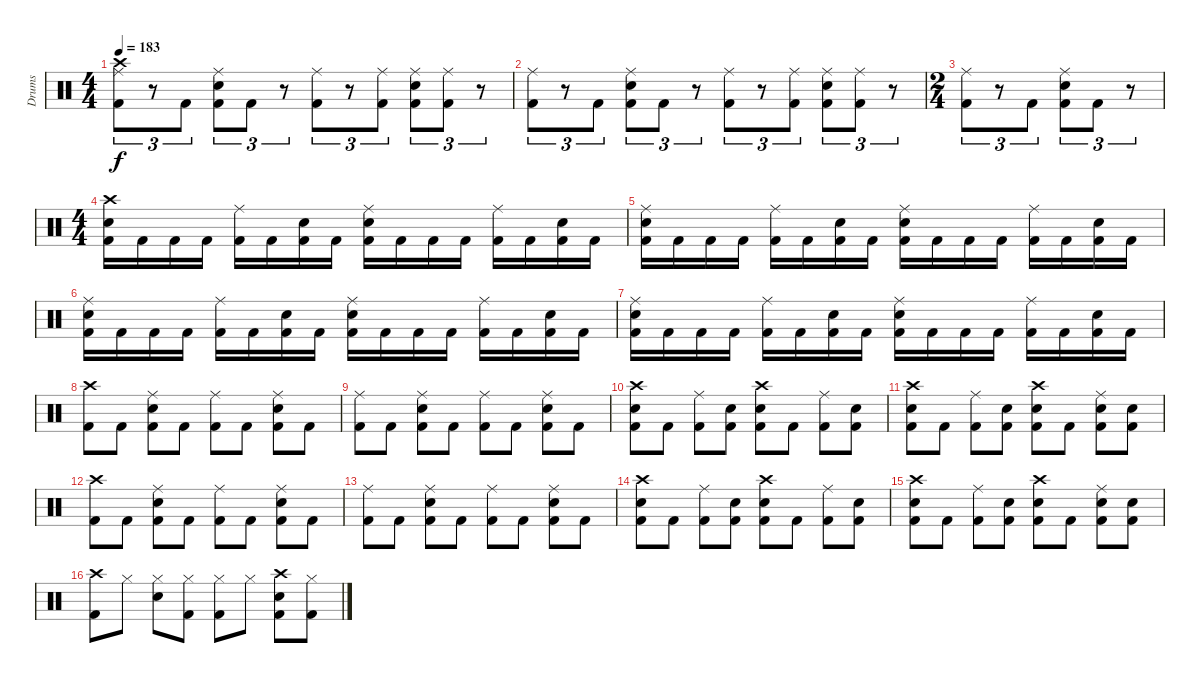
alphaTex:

\track ("Drums" "Drums") {instrument percussion}
\staff {score}
\articulation defaults
\ts (4 4)
\tempo 183
\clef neutral
\ks c
("Crash high (hit)" "Ride (middle)" "Kick (hit) 2").8{tu (3 2) dy f} r.8{tu (3 2)} "Kick (hit) 2".8{tu (3 2)} ("Ride (middle)" "Snare (hit) 2" "Kick (hit) 2").8{tu (3 2)} "Kick (hit) 2".8{tu (3 2)} r.8{tu (3 2)} ("Ride (middle)" "Kick (hit) 2").8{tu (3 2)} r.8{tu (3 2)} ("Ride (middle)" "Kick (hit) 2").8{tu (3 2)} ("Ride (middle)" "Snare (hit) 2" "Kick (hit) 2").8{tu (3 2)} ("Ride (middle)" "Kick (hit) 2").8{tu (3 2)} r.8{tu (3 2)} |
("Ride (middle)" "Kick (hit) 2").8{tu (3 2)} r.8{tu (3 2)} "Kick (hit) 2".8{tu (3 2)} ("Ride (middle)" "Snare (hit) 2" "Kick (hit) 2").8{tu (3 2)} "Kick (hit) 2".8{tu (3 2)} r.8{tu (3 2)} ("Ride (middle)" "Kick (hit) 2").8{tu (3 2)} r.8{tu (3 2)} ("Ride (middle)" "Kick (hit) 2").8{tu (3 2)} ("Ride (middle)" "Snare (hit) 2" "Kick (hit) 2").8{tu (3 2)} ("Ride (middle)" "Kick (hit) 2").8{tu (3 2)} r.8{tu (3 2)} |
\ts (2 4)
("Ride (middle)" "Kick (hit) 2").8{tu (3 2)} r.8{tu (3 2)} "Kick (hit) 2".8{tu (3 2)} ("Ride (middle)" "Snare (hit) 2" "Kick (hit) 2").8{tu (3 2)} "Kick (hit) 2".8{tu (3 2)} r.8{tu (3 2)} |
\ts (4 4)
("Crash high (hit)" "Snare (hit) 2" "Kick (hit) 2").16 "Kick (hit) 2".16 "Kick (hit) 2".16 "Kick (hit) 2".16 ("Ride (middle)" "Kick (hit) 2").16 "Kick (hit) 2".16 ("Snare (hit) 2" "Kick (hit) 2").16 "Kick (hit) 2".16 ("Ride (middle)" "Snare (hit) 2" "Kick (hit) 2").16 "Kick (hit) 2".16 "Kick (hit) 2".16 "Kick (hit) 2".16 ("Ride (middle)" "Kick (hit) 2").16 "Kick (hit) 2".16 ("Snare (hit) 2" "Kick (hit) 2").16 "Kick (hit) 2".16 |
("Ride (middle)" "Snare (hit) 2" "Kick (hit) 2").16 "Kick (hit) 2".16 "Kick (hit) 2".16 "Kick (hit) 2".16 ("Ride (middle)" "Kick (hit) 2").16 "Kick (hit) 2".16 ("Snare (hit) 2" "Kick (hit) 2").16 "Kick (hit) 2".16 ("Ride (middle)" "Snare (hit) 2" "Kick (hit) 2").16 "Kick (hit) 2".16 "Kick (hit) 2".16 "Kick (hit) 2".16 ("Ride (middle)" "Kick (hit) 2").16 "Kick (hit) 2".16 ("Snare (hit) 2" "Kick (hit) 2").16 "Kick (hit) 2".16 |
("Ride (middle)" "Snare (hit) 2" "Kick (hit) 2").16 "Kick (hit) 2".16 "Kick (hit) 2".16 "Kick (hit) 2".16 ("Ride (middle)" "Kick (hit) 2").16 "Kick (hit) 2".16 ("Snare (hit) 2" "Kick (hit) 2").16 "Kick (hit) 2".16 ("Ride (middle)" "Snare (hit) 2" "Kick (hit) 2").16 "Kick (hit) 2".16 "Kick (hit) 2".16 "Kick (hit) 2".16 ("Ride (middle)" "Kick (hit) 2").16 "Kick (hit) 2".16 ("Snare (hit) 2" "Kick (hit) 2").16 "Kick (hit) 2".16 |
("Ride (middle)" "Snare (hit) 2" "Kick (hit) 2").16 "Kick (hit) 2".16 "Kick (hit) 2".16 "Kick (hit) 2".16 ("Ride (middle)" "Kick (hit) 2").16 "Kick (hit) 2".16 ("Snare (hit) 2" "Kick (hit) 2").16 "Kick (hit) 2".16 ("Ride (middle)" "Snare (hit) 2" "Kick (hit) 2").16 "Kick (hit) 2".16 "Kick (hit) 2".16 "Kick (hit) 2".16 ("Ride (middle)" "Kick (hit) 2").16 "Kick (hit) 2".16 ("Snare (hit) 2" "Kick (hit) 2").16 "Kick (hit) 2".16 |
("Crash high (hit)" "Kick (hit) 2").8 "Kick (hit) 2".8 ("Ride (middle)" "Snare (hit) 2" "Kick (hit) 2").8 "Kick (hit) 2".8 ("Ride (middle)" "Kick (hit) 2").8 "Kick (hit) 2".8 ("Ride (middle)" "Snare (hit) 2" "Kick (hit) 2").8 "Kick (hit) 2".8 |
("Ride (middle)" "Kick (hit) 2").8 "Kick (hit) 2".8 ("Ride (middle)" "Snare (hit) 2" "Kick (hit) 2").8 "Kick (hit) 2".8 ("Ride (middle)" "Kick (hit) 2").8 "Kick (hit) 2".8 ("Ride (middle)" "Snare (hit) 2" "Kick (hit) 2").8 "Kick (hit) 2".8 |
("Crash high (hit)" "Snare (hit) 2" "Kick (hit) 2").8 "Kick (hit) 2".8 ("Ride (middle)" "Kick (hit) 2").8 ("Snare (hit) 2" "Kick (hit) 2").8 ("Crash high (hit)" "Snare (hit) 2" "Kick (hit) 2").8 "Kick (hit) 2".8 ("Ride (middle)" "Kick (hit) 2").8 ("Snare (hit) 2" "Kick (hit) 2").8 |
("Crash high (hit)" "Snare (hit) 2" "Kick (hit) 2").8 "Kick (hit) 2".8 ("Ride (middle)" "Kick (hit) 2").8 ("Snare (hit) 2" "Kick (hit) 2").8 ("Crash high (hit)" "Snare (hit) 2" "Kick (hit) 2").8 "Kick (hit) 2".8 ("Ride (middle)" "Snare (hit) 2" "Kick (hit) 2").8 ("Snare (hit) 2" "Kick (hit) 2").8 |
("Crash high (hit)" "Kick (hit) 2").8 "Kick (hit) 2".8 ("Ride (middle)" "Snare (hit) 2" "Kick (hit) 2").8 "Kick (hit) 2".8 ("Ride (middle)" "Kick (hit) 2").8 "Kick (hit) 2".8 ("Ride (middle)" "Snare (hit) 2" "Kick (hit) 2").8 "Kick (hit) 2".8 |
("Ride (middle)" "Kick (hit) 2").8 "Kick (hit) 2".8 ("Ride (middle)" "Snare (hit) 2" "Kick (hit) 2").8 "Kick (hit) 2".8 ("Ride (middle)" "Kick (hit) 2").8 "Kick (hit) 2".8 ("Ride (middle)" "Snare (hit) 2" "Kick (hit) 2").8 "Kick (hit) 2".8 |
("Crash high (hit)" "Snare (hit) 2" "Kick (hit) 2").8 "Kick (hit) 2".8 ("Ride (middle)" "Kick (hit) 2").8 ("Snare (hit) 2" "Kick (hit) 2").8 ("Crash high (hit)" "Snare (hit) 2" "Kick (hit) 2").8 "Kick (hit) 2".8 ("Ride (middle)" "Kick (hit) 2").8 ("Snare (hit) 2" "Kick (hit) 2").8 |
("Crash high (hit)" "Snare (hit) 2" "Kick (hit) 2").8 "Kick (hit) 2".8 ("Ride (middle)" "Kick (hit) 2").8 ("Snare (hit) 2" "Kick (hit) 2").8 ("Crash high (hit)" "Snare (hit) 2" "Kick (hit) 2").8 "Kick (hit) 2".8 ("Ride (middle)" "Snare (hit) 2" "Kick (hit) 2").8 ("Snare (hit) 2" "Kick (hit) 2").8 |
("Crash high (hit)" "Kick (hit) 2").8 "Hi-Hat (closed)".8 ("Hi-Hat (closed)" "Snare (hit) 2").8 ("Hi-Hat (closed)" "Kick (hit) 2").8 ("Hi-Hat (closed)" "Kick (hit) 2").8 "Hi-Hat (closed)".8 ("Crash high (hit)" "Snare (hit) 2" "Kick (hit) 2").8 ("Hi-Hat (closed)" "Kick (hit) 2").8
